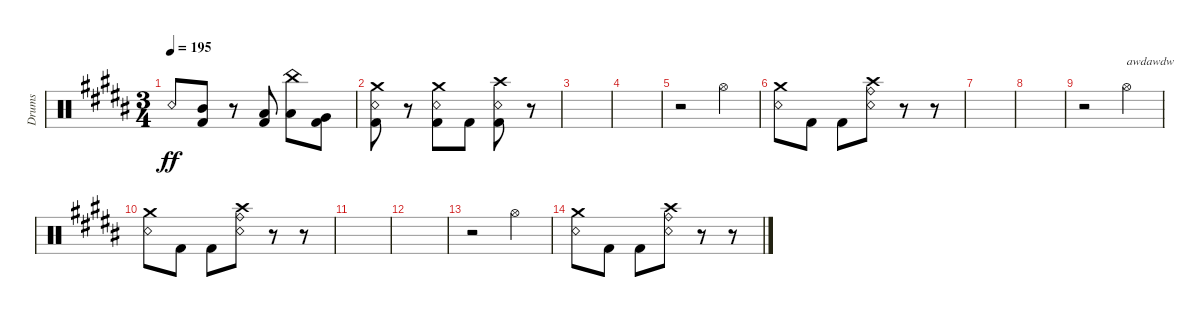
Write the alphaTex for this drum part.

\bracketExtendMode groupsimilarinstruments
\otherSystemsTrackNameOrientation horizontal
\track ("Drumkit" "Drums") {instrument percussion}
\staff {score}
\articulation defaults
\ts (3 4)
\tempo 195
\clef neutral
\ks b "Snare (rim shot)"{acc bb}.8{dy ff beam Up}
("Kick (hit) 2"{acc bb} "Mid Tom (hit)"{acc bb}).8{beam Up} r.8{beam Up} ("Kick (hit) 2"{acc bb} "Low Tom (hit)"{acc bb}).8{beam Up} ("Low Tom (hit)"{acc bb} "China (hit)"{acc bb}).8{beam Down} ("Very Low Tom (hit)"{acc bb} "Kick (hit) 2"{acc bb}).8{beam Down} |
("Kick (hit) 2"{acc bb} "Snare (rim shot)"{acc bb} "Crash medium (hit)"{acc bb}).8{beam Down} r.8{beam Down} ("Snare (rim shot)"{acc bb} "Crash medium (hit)"{acc bb} "Kick (hit) 2"{acc bb}).8{beam Down} "Kick (hit) 2"{acc bb}.8{beam Down} ("Snare (rim shot)"{acc bb} "Crash high (hit)"{acc bb} "Kick (hit) 2"{acc bb}).8{beam Down} r.8{beam Down} |
|
|
r.2{beam Down} "Hi-Hat (open)"{acc bb}.4{beam Down} |
("Snare (rim shot)"{acc bb} "Crash medium (hit)"{acc bb}).8{beam Down} "Kick (hit) 2"{acc bb}.8{beam Down} "Kick (hit) 2"{acc bb}.8{beam Down} ("Snare (rim shot)"{acc bb} "Ride (bell)"{acc bb} "Crash high (hit)"{acc bb}).8{beam Down} r.8{beam Down} r.8{beam Down} |
|
|
r.2{beam Down} "Hi-Hat (open)"{acc bb}.4{txt "awdawdw" beam Down} |
("Snare (rim shot)"{acc bb} "Crash medium (hit)"{acc bb}).8{beam Down} "Kick (hit) 2"{acc bb}.8{beam Down} "Kick (hit) 2"{acc bb}.8{beam Down} ("Snare (rim shot)"{acc bb} "Ride (bell)"{acc bb} "Crash high (hit)"{acc bb}).8{beam Down} r.8{beam Down} r.8{beam Down} |
|
|
r.2{beam Down} "Hi-Hat (open)"{acc bb}.4{beam Down} |
("Snare (rim shot)"{acc bb} "Crash medium (hit)"{acc bb}).8{beam Down} "Kick (hit) 2"{acc bb}.8{beam Down} "Kick (hit) 2"{acc bb}.8{beam Down} ("Snare (rim shot)"{acc bb} "Ride (bell)"{acc bb} "Crash high (hit)"{acc bb}).8{beam Down} r.8{beam Down} r.8{beam Down}
